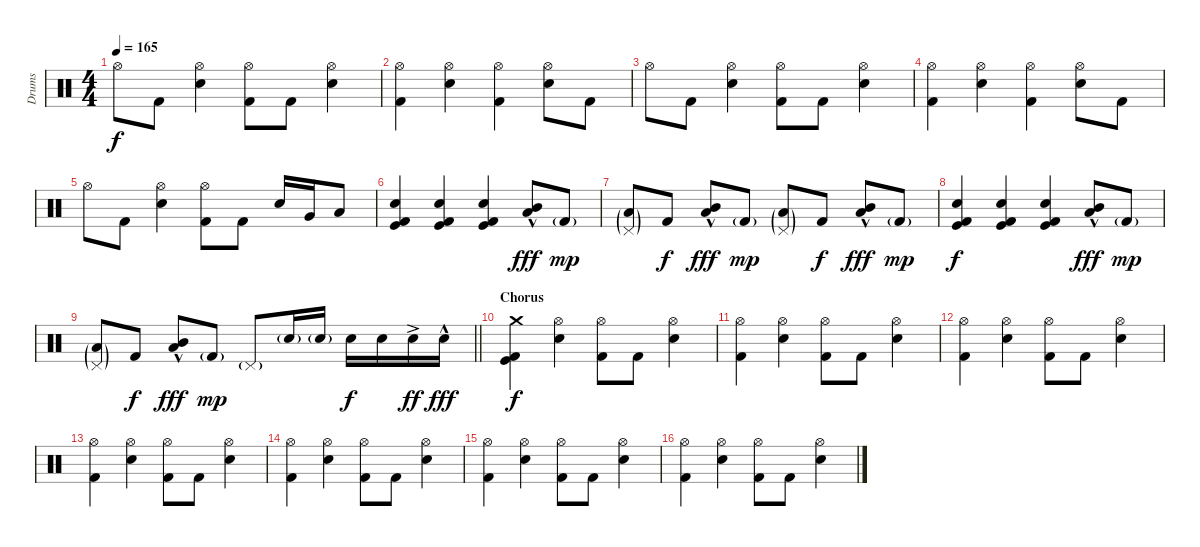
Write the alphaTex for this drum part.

\track ("Drums" "Drums") {instrument percussion}
\staff {score}
\articulation defaults
\ts (4 4)
\tempo 165
\clef neutral
\ks c "Hi-Hat (open)".8{dy f} "Kick (hit) 2".8
("Hi-Hat (open)" "Electric Snare (hit)").4 ("Hi-Hat (open)" "Kick (hit) 2").8 "Kick (hit) 2".8 ("Hi-Hat (open)" "Electric Snare (hit)").4 |
("Hi-Hat (open)" "Kick (hit) 2").4 ("Hi-Hat (open)" "Electric Snare (hit)").4 ("Hi-Hat (open)" "Kick (hit) 2").4 ("Hi-Hat (open)" "Electric Snare (hit)").8 "Kick (hit) 2".8 |
"Hi-Hat (open)".8 "Kick (hit) 2".8 ("Hi-Hat (open)" "Electric Snare (hit)").4 ("Hi-Hat (open)" "Kick (hit) 2").8 "Kick (hit) 2".8 ("Hi-Hat (open)" "Electric Snare (hit)").4 |
("Hi-Hat (open)" "Kick (hit) 2").4 ("Hi-Hat (open)" "Electric Snare (hit)").4 ("Hi-Hat (open)" "Kick (hit) 2").4 ("Hi-Hat (open)" "Electric Snare (hit)").8 "Kick (hit) 2".8 |
"Hi-Hat (open)".8 "Kick (hit) 2".8 ("Hi-Hat (open)" "Electric Snare (hit)").4 ("Hi-Hat (open)" "Kick (hit) 2").8 "Kick (hit) 2".8 "Electric Snare (hit)".16 "Very Low Tom (hit)".16 "Low Floor Tom (hit)".8 |
("Kick (hit) 2" "Kick (hit)" "Electric Snare (hit)").4 ("Kick (hit) 2" "Kick (hit)" "Electric Snare (hit)").4 ("Kick (hit) 2" "Kick (hit)" "Electric Snare (hit)").4 ("Mid Tom (hit)"{hac} "Low Floor Tom (hit)").8{dy fff} "Kick (hit) 2"{g}.8{dy mp} |
("Low Floor Tom (hit)"{g} "Pedal Hi-Hat (hit)"{g}).8 "Kick (hit) 2".8{dy f} ("Mid Tom (hit)"{hac} "Low Floor Tom (hit)").8{dy fff} "Kick (hit) 2"{g}.8{dy mp} ("Low Floor Tom (hit)"{g} "Pedal Hi-Hat (hit)"{g}).8 "Kick (hit) 2".8{dy f} ("Mid Tom (hit)"{hac} "Low Floor Tom (hit)").8{dy fff} "Kick (hit) 2"{g}.8{dy mp} |
("Kick (hit) 2" "Kick (hit)" "Electric Snare (hit)").4{dy f} ("Kick (hit) 2" "Kick (hit)" "Electric Snare (hit)").4 ("Kick (hit) 2" "Kick (hit)" "Electric Snare (hit)").4 ("Mid Tom (hit)"{hac} "Low Floor Tom (hit)").8{dy fff} "Kick (hit) 2"{g}.8{dy mp} |
\barLineRight lightlight
("Low Floor Tom (hit)"{g} "Pedal Hi-Hat (hit)"{g}).8 "Kick (hit) 2".8{dy f} ("Mid Tom (hit)"{hac} "Low Floor Tom (hit)").8{dy fff} "Kick (hit) 2"{g}.8{dy mp} "Pedal Hi-Hat (hit)"{g}.8 "Electric Snare (hit)"{g}.16 "Electric Snare (hit)"{g}.16 "Electric Snare (hit)".16{dy f} "Electric Snare (hit)".16 "Electric Snare (hit)"{ac}.16{dy ff} "Electric Snare (hit)"{hac}.16{dy fff} |
\section ("" "Chorus")
("Crash medium (hit)" "Kick (hit) 2" "Kick (hit)").4{dy f} ("Hi-Hat (open)" "Electric Snare (hit)").4 ("Hi-Hat (open)" "Kick (hit) 2").8 "Kick (hit) 2".8 ("Hi-Hat (open)" "Electric Snare (hit)").4 |
("Hi-Hat (open)" "Kick (hit) 2").4 ("Hi-Hat (open)" "Electric Snare (hit)").4 ("Hi-Hat (open)" "Kick (hit) 2").8 "Kick (hit) 2".8 ("Hi-Hat (open)" "Electric Snare (hit)").4 |
("Hi-Hat (open)" "Kick (hit) 2").4 ("Hi-Hat (open)" "Electric Snare (hit)").4 ("Hi-Hat (open)" "Kick (hit) 2").8 "Kick (hit) 2".8 ("Hi-Hat (open)" "Electric Snare (hit)").4 |
("Hi-Hat (open)" "Kick (hit) 2").4 ("Hi-Hat (open)" "Electric Snare (hit)").4 ("Hi-Hat (open)" "Kick (hit) 2").8 "Kick (hit) 2".8 ("Hi-Hat (open)" "Electric Snare (hit)").4 |
("Hi-Hat (open)" "Kick (hit) 2").4 ("Hi-Hat (open)" "Electric Snare (hit)").4 ("Hi-Hat (open)" "Kick (hit) 2").8 "Kick (hit) 2".8 ("Hi-Hat (open)" "Electric Snare (hit)").4 |
("Hi-Hat (open)" "Kick (hit) 2").4 ("Hi-Hat (open)" "Electric Snare (hit)").4 ("Hi-Hat (open)" "Kick (hit) 2").8 "Kick (hit) 2".8 ("Hi-Hat (open)" "Electric Snare (hit)").4 |
("Hi-Hat (open)" "Kick (hit) 2").4 ("Hi-Hat (open)" "Electric Snare (hit)").4 ("Hi-Hat (open)" "Kick (hit) 2").8 "Kick (hit) 2".8 ("Hi-Hat (open)" "Electric Snare (hit)").4
